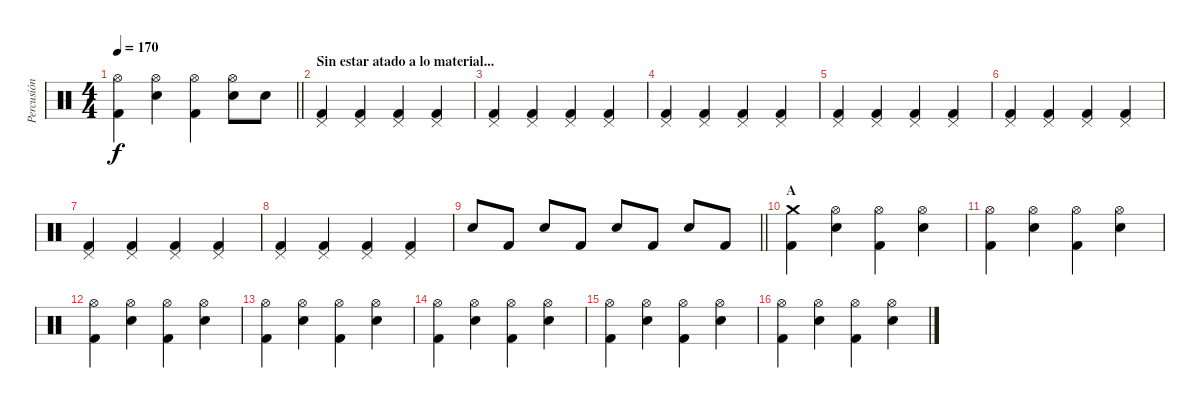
\track ("Percusión" "Percusión") {instrument percussion}
\staff {score}
\articulation defaults
\ts (4 4)
\tempo 170
\clef neutral
\barLineRight lightlight
\ks c
("Hi-Hat (open)" "Kick (hit) 2").4{dy f} ("Hi-Hat (open)" "Snare (hit) 2").4 ("Hi-Hat (open)" "Kick (hit) 2").4 ("Hi-Hat (open)" "Snare (hit) 2").8 "Snare (hit) 2".8 |
\section ("" "Sin estar atado a lo material...")
("Pedal Hi-Hat (hit)" "Kick (hit) 2").4 ("Pedal Hi-Hat (hit)" "Kick (hit) 2").4 ("Pedal Hi-Hat (hit)" "Kick (hit) 2").4 ("Pedal Hi-Hat (hit)" "Kick (hit) 2").4 |
("Pedal Hi-Hat (hit)" "Kick (hit) 2").4 ("Pedal Hi-Hat (hit)" "Kick (hit) 2").4 ("Pedal Hi-Hat (hit)" "Kick (hit) 2").4 ("Pedal Hi-Hat (hit)" "Kick (hit) 2").4 |
("Pedal Hi-Hat (hit)" "Kick (hit) 2").4 ("Pedal Hi-Hat (hit)" "Kick (hit) 2").4 ("Pedal Hi-Hat (hit)" "Kick (hit) 2").4 ("Pedal Hi-Hat (hit)" "Kick (hit) 2").4 |
("Pedal Hi-Hat (hit)" "Kick (hit) 2").4 ("Pedal Hi-Hat (hit)" "Kick (hit) 2").4 ("Pedal Hi-Hat (hit)" "Kick (hit) 2").4 ("Pedal Hi-Hat (hit)" "Kick (hit) 2").4 |
("Pedal Hi-Hat (hit)" "Kick (hit) 2").4 ("Pedal Hi-Hat (hit)" "Kick (hit) 2").4 ("Pedal Hi-Hat (hit)" "Kick (hit) 2").4 ("Pedal Hi-Hat (hit)" "Kick (hit) 2").4 |
("Pedal Hi-Hat (hit)" "Kick (hit) 2").4 ("Pedal Hi-Hat (hit)" "Kick (hit) 2").4 ("Pedal Hi-Hat (hit)" "Kick (hit) 2").4 ("Pedal Hi-Hat (hit)" "Kick (hit) 2").4 |
("Pedal Hi-Hat (hit)" "Kick (hit) 2").4 ("Pedal Hi-Hat (hit)" "Kick (hit) 2").4 ("Pedal Hi-Hat (hit)" "Kick (hit) 2").4 ("Pedal Hi-Hat (hit)" "Kick (hit) 2").4 |
\barLineRight lightlight "Snare (hit) 2".8 "Kick (hit) 2".8 "Snare (hit) 2".8 "Kick (hit) 2".8 "Snare (hit) 2".8 "Kick (hit) 2".8 "Snare (hit) 2".8 "Kick (hit) 2".8
|
\section ("" "A")
("Crash medium (hit)" "Kick (hit) 2").4 ("Hi-Hat (open)" "Snare (hit) 2").4 ("Hi-Hat (open)" "Kick (hit) 2").4 ("Hi-Hat (open)" "Snare (hit) 2").4 |
("Hi-Hat (open)" "Kick (hit) 2").4 ("Hi-Hat (open)" "Snare (hit) 2").4 ("Hi-Hat (open)" "Kick (hit) 2").4 ("Hi-Hat (open)" "Snare (hit) 2").4 |
("Hi-Hat (open)" "Kick (hit) 2").4 ("Hi-Hat (open)" "Snare (hit) 2").4 ("Hi-Hat (open)" "Kick (hit) 2").4 ("Hi-Hat (open)" "Snare (hit) 2").4 |
("Hi-Hat (open)" "Kick (hit) 2").4 ("Hi-Hat (open)" "Snare (hit) 2").4 ("Hi-Hat (open)" "Kick (hit) 2").4 ("Hi-Hat (open)" "Snare (hit) 2").4 |
("Hi-Hat (open)" "Kick (hit) 2").4 ("Hi-Hat (open)" "Snare (hit) 2").4 ("Hi-Hat (open)" "Kick (hit) 2").4 ("Hi-Hat (open)" "Snare (hit) 2").4 |
("Hi-Hat (open)" "Kick (hit) 2").4 ("Hi-Hat (open)" "Snare (hit) 2").4 ("Hi-Hat (open)" "Kick (hit) 2").4 ("Hi-Hat (open)" "Snare (hit) 2").4 |
("Hi-Hat (open)" "Kick (hit) 2").4 ("Hi-Hat (open)" "Snare (hit) 2").4 ("Hi-Hat (open)" "Kick (hit) 2").4 ("Hi-Hat (open)" "Snare (hit) 2").4
